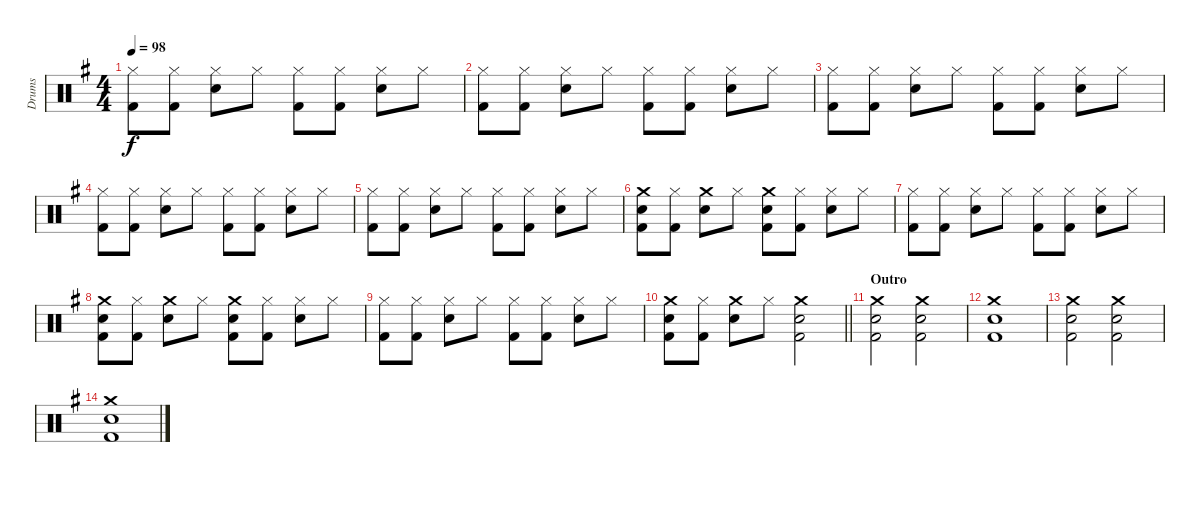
\track ("Drums" "Drums") {instrument percussion}
\staff {score}
\articulation defaults
\ts (4 4)
\tempo 98
\clef neutral
\ks g
("Hi-Hat (closed)" "Kick (hit) 2").8{dy f} ("Hi-Hat (closed)" "Kick (hit) 2").8 ("Hi-Hat (closed)" "Electric Snare (hit)").8 "Hi-Hat (closed)".8 ("Hi-Hat (closed)" "Kick (hit) 2").8 ("Hi-Hat (closed)" "Kick (hit) 2").8 ("Hi-Hat (closed)" "Electric Snare (hit)").8 "Hi-Hat (closed)".8 |
("Hi-Hat (closed)" "Kick (hit) 2").8 ("Hi-Hat (closed)" "Kick (hit) 2").8 ("Hi-Hat (closed)" "Electric Snare (hit)").8 "Hi-Hat (closed)".8 ("Hi-Hat (closed)" "Kick (hit) 2").8 ("Hi-Hat (closed)" "Kick (hit) 2").8 ("Hi-Hat (closed)" "Electric Snare (hit)").8 "Hi-Hat (closed)".8 |
("Hi-Hat (closed)" "Kick (hit) 2").8 ("Hi-Hat (closed)" "Kick (hit) 2").8 ("Hi-Hat (closed)" "Electric Snare (hit)").8 "Hi-Hat (closed)".8 ("Hi-Hat (closed)" "Kick (hit) 2").8 ("Hi-Hat (closed)" "Kick (hit) 2").8 ("Hi-Hat (closed)" "Electric Snare (hit)").8 "Hi-Hat (closed)".8 |
("Hi-Hat (closed)" "Kick (hit) 2").8 ("Hi-Hat (closed)" "Kick (hit) 2").8 ("Hi-Hat (closed)" "Electric Snare (hit)").8 "Hi-Hat (closed)".8 ("Hi-Hat (closed)" "Kick (hit) 2").8 ("Hi-Hat (closed)" "Kick (hit) 2").8 ("Hi-Hat (closed)" "Electric Snare (hit)").8 "Hi-Hat (closed)".8 |
("Hi-Hat (closed)" "Kick (hit) 2").8 ("Hi-Hat (closed)" "Kick (hit) 2").8 ("Hi-Hat (closed)" "Electric Snare (hit)").8 "Hi-Hat (closed)".8 ("Hi-Hat (closed)" "Kick (hit) 2").8 ("Hi-Hat (closed)" "Kick (hit) 2").8 ("Hi-Hat (closed)" "Electric Snare (hit)").8 "Hi-Hat (closed)".8 |
("Crash medium (hit)" "Electric Snare (hit)" "Kick (hit) 2").8 ("Hi-Hat (closed)" "Kick (hit) 2").8 ("Crash medium (hit)" "Electric Snare (hit)").8 "Hi-Hat (closed)".8 ("Crash medium (hit)" "Electric Snare (hit)" "Kick (hit) 2").8 ("Hi-Hat (closed)" "Kick (hit) 2").8 ("Hi-Hat (closed)" "Electric Snare (hit)").8 "Hi-Hat (closed)".8 |
("Hi-Hat (closed)" "Kick (hit) 2").8 ("Hi-Hat (closed)" "Kick (hit) 2").8 ("Hi-Hat (closed)" "Electric Snare (hit)").8 "Hi-Hat (closed)".8 ("Hi-Hat (closed)" "Kick (hit) 2").8 ("Hi-Hat (closed)" "Kick (hit) 2").8 ("Hi-Hat (closed)" "Electric Snare (hit)").8 "Hi-Hat (closed)".8 |
("Crash medium (hit)" "Electric Snare (hit)" "Kick (hit) 2").8 ("Hi-Hat (closed)" "Kick (hit) 2").8 ("Crash medium (hit)" "Electric Snare (hit)").8 "Hi-Hat (closed)".8 ("Crash medium (hit)" "Electric Snare (hit)" "Kick (hit) 2").8 ("Hi-Hat (closed)" "Kick (hit) 2").8 ("Hi-Hat (closed)" "Electric Snare (hit)").8 "Hi-Hat (closed)".8 |
("Hi-Hat (closed)" "Kick (hit) 2").8 ("Hi-Hat (closed)" "Kick (hit) 2").8 ("Hi-Hat (closed)" "Electric Snare (hit)").8 "Hi-Hat (closed)".8 ("Hi-Hat (closed)" "Kick (hit) 2").8 ("Hi-Hat (closed)" "Kick (hit) 2").8 ("Hi-Hat (closed)" "Electric Snare (hit)").8 "Hi-Hat (closed)".8 |
\barLineRight lightlight
("Crash medium (hit)" "Electric Snare (hit)" "Kick (hit) 2").8 ("Hi-Hat (closed)" "Kick (hit) 2").8 ("Crash medium (hit)" "Electric Snare (hit)").8 "Hi-Hat (closed)".8 ("Crash medium (hit)" "Electric Snare (hit)" "Kick (hit) 2").2 |
\section ("" "Outro")
("Crash medium (hit)" "Electric Snare (hit)" "Kick (hit) 2").2 ("Crash medium (hit)" "Electric Snare (hit)" "Kick (hit) 2").2 |
("Crash medium (hit)" "Electric Snare (hit)" "Kick (hit) 2").1 |
("Crash medium (hit)" "Electric Snare (hit)" "Kick (hit) 2").2 ("Crash medium (hit)" "Electric Snare (hit)" "Kick (hit) 2").2 |
("Crash medium (hit)" "Electric Snare (hit)" "Kick (hit) 2").1
